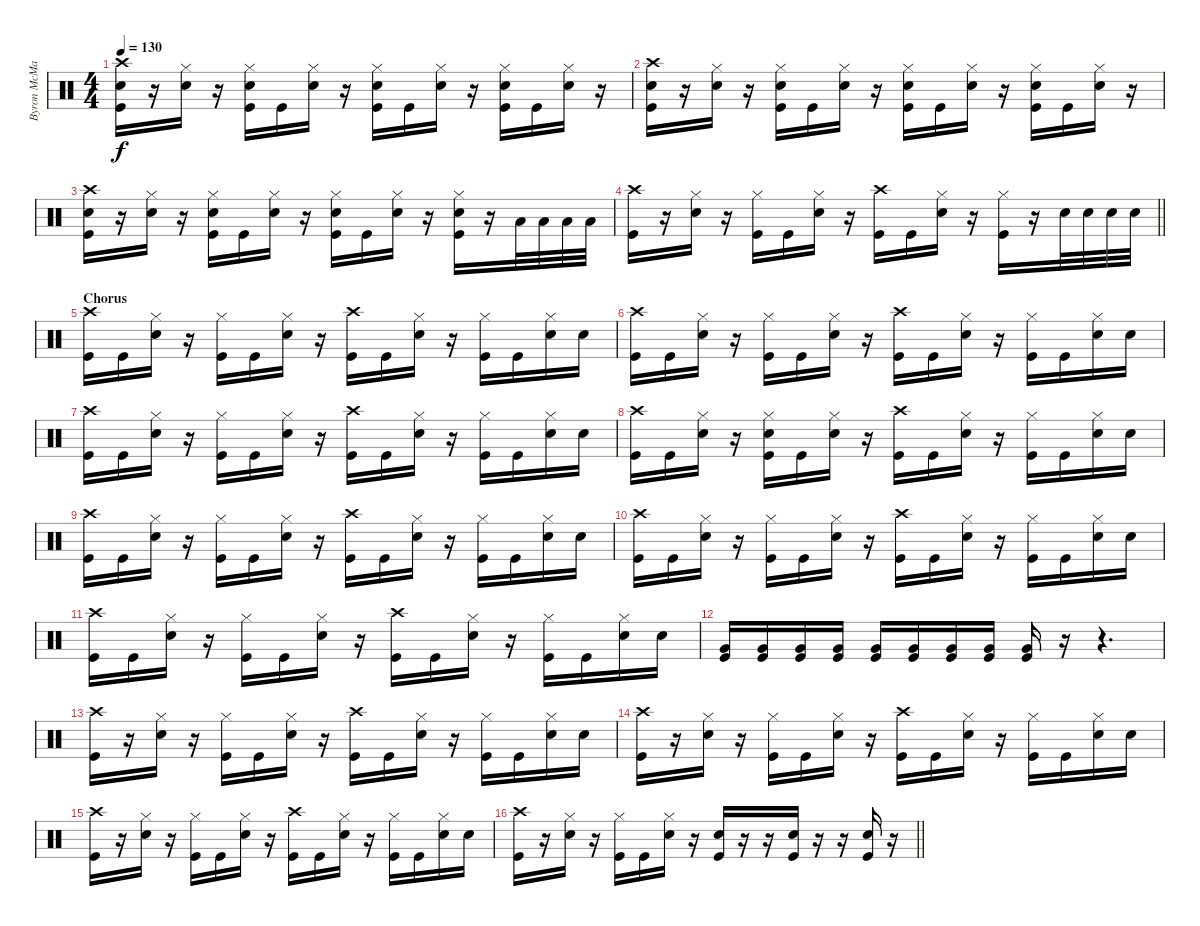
\track ("Byron McMackin" "Byron McMa") {instrument percussion}
\staff {score}
\articulation defaults
\ts (4 4)
\tempo 130
\clef neutral
\ks c
("Crash high (hit)" "Electric Snare (hit)" "Kick (hit)").16{dy f} r.16 ("Hi-Hat (closed)" "Electric Snare (hit)").16 r.16 ("Hi-Hat (closed)" "Electric Snare (hit)" "Kick (hit)").16 "Kick (hit)".16 ("Hi-Hat (closed)" "Electric Snare (hit)").16 r.16 ("Hi-Hat (closed)" "Electric Snare (hit)" "Kick (hit)").16 "Kick (hit)".16 ("Hi-Hat (closed)" "Electric Snare (hit)").16 r.16 ("Hi-Hat (closed)" "Electric Snare (hit)" "Kick (hit)").16 "Kick (hit)".16 ("Hi-Hat (closed)" "Electric Snare (hit)").16 r.16 |
("Crash high (hit)" "Electric Snare (hit)" "Kick (hit)").16 r.16 ("Hi-Hat (closed)" "Electric Snare (hit)").16 r.16 ("Hi-Hat (closed)" "Electric Snare (hit)" "Kick (hit)").16 "Kick (hit)".16 ("Hi-Hat (closed)" "Electric Snare (hit)").16 r.16 ("Hi-Hat (closed)" "Electric Snare (hit)" "Kick (hit)").16 "Kick (hit)".16 ("Hi-Hat (closed)" "Electric Snare (hit)").16 r.16 ("Hi-Hat (closed)" "Electric Snare (hit)" "Kick (hit)").16 "Kick (hit)".16 ("Hi-Hat (closed)" "Electric Snare (hit)").16 r.16 |
("Crash high (hit)" "Electric Snare (hit)" "Kick (hit)").16 r.16 ("Hi-Hat (closed)" "Electric Snare (hit)").16 r.16 ("Hi-Hat (closed)" "Electric Snare (hit)" "Kick (hit)").16 "Kick (hit)".16 ("Hi-Hat (closed)" "Electric Snare (hit)").16 r.16 ("Hi-Hat (closed)" "Electric Snare (hit)" "Kick (hit)").16 "Kick (hit)".16 ("Hi-Hat (closed)" "Electric Snare (hit)").16 r.16 ("Hi-Hat (closed)" "Electric Snare (hit)" "Kick (hit)").16 r.16 "Low Tom (hit)".32 "Low Tom (hit)".32 "Low Tom (hit)".32 "Low Tom (hit)".32 |
\barLineRight lightlight
("Crash high (hit)" "Kick (hit)").16 r.16 ("Hi-Hat (closed)" "Electric Snare (hit)").16 r.16 ("Hi-Hat (closed)" "Kick (hit)").16 "Kick (hit)".16 ("Hi-Hat (closed)" "Electric Snare (hit)").16 r.16 ("Crash high (hit)" "Kick (hit)").16 "Kick (hit)".16 ("Hi-Hat (closed)" "Electric Snare (hit)").16 r.16 ("Hi-Hat (closed)" "Kick (hit)").16 r.16 "Electric Snare (hit)".32 "Electric Snare (hit)".32 "Electric Snare (hit)".32 "Electric Snare (hit)".32 |
\section ("" "Chorus")
("Crash high (hit)" "Kick (hit)").16 "Kick (hit)".16 ("Hi-Hat (closed)" "Electric Snare (hit)").16 r.16 ("Hi-Hat (closed)" "Kick (hit)").16 "Kick (hit)".16 ("Hi-Hat (closed)" "Electric Snare (hit)").16 r.16 ("Crash high (hit)" "Kick (hit)").16 "Kick (hit)".16 ("Hi-Hat (closed)" "Electric Snare (hit)").16 r.16 ("Hi-Hat (closed)" "Kick (hit)").16 "Kick (hit)".16 ("Hi-Hat (closed)" "Electric Snare (hit)").16 "Electric Snare (hit)".16 |
("Crash high (hit)" "Kick (hit)").16 "Kick (hit)".16 ("Hi-Hat (closed)" "Electric Snare (hit)").16 r.16 ("Hi-Hat (closed)" "Kick (hit)").16 "Kick (hit)".16 ("Hi-Hat (closed)" "Electric Snare (hit)").16 r.16 ("Crash high (hit)" "Kick (hit)").16 "Kick (hit)".16 ("Hi-Hat (closed)" "Electric Snare (hit)").16 r.16 ("Hi-Hat (closed)" "Kick (hit)").16 "Kick (hit)".16 ("Hi-Hat (closed)" "Electric Snare (hit)").16 "Electric Snare (hit)".16 |
("Crash high (hit)" "Kick (hit)").16 "Kick (hit)".16 ("Hi-Hat (closed)" "Electric Snare (hit)").16 r.16 ("Hi-Hat (closed)" "Kick (hit)").16 "Kick (hit)".16 ("Hi-Hat (closed)" "Electric Snare (hit)").16 r.16 ("Crash high (hit)" "Kick (hit)").16 "Kick (hit)".16 ("Hi-Hat (closed)" "Electric Snare (hit)").16 r.16 ("Hi-Hat (closed)" "Kick (hit)").16 "Kick (hit)".16 ("Hi-Hat (closed)" "Electric Snare (hit)").16 "Electric Snare (hit)".16 |
("Crash high (hit)" "Kick (hit)").16 "Kick (hit)".16 ("Hi-Hat (closed)" "Electric Snare (hit)").16 r.16 ("Hi-Hat (closed)" "Electric Snare (hit)" "Kick (hit)").16 "Kick (hit)".16 ("Hi-Hat (closed)" "Electric Snare (hit)").16 r.16 ("Crash high (hit)" "Kick (hit)").16 "Kick (hit)".16 ("Hi-Hat (closed)" "Electric Snare (hit)").16 r.16 ("Hi-Hat (closed)" "Kick (hit)").16 "Kick (hit)".16 ("Hi-Hat (closed)" "Electric Snare (hit)").16 "Electric Snare (hit)".16 |
("Crash high (hit)" "Kick (hit)").16 "Kick (hit)".16 ("Hi-Hat (closed)" "Electric Snare (hit)").16 r.16 ("Hi-Hat (closed)" "Kick (hit)").16 "Kick (hit)".16 ("Hi-Hat (closed)" "Electric Snare (hit)").16 r.16 ("Crash high (hit)" "Kick (hit)").16 "Kick (hit)".16 ("Hi-Hat (closed)" "Electric Snare (hit)").16 r.16 ("Hi-Hat (closed)" "Kick (hit)").16 "Kick (hit)".16 ("Hi-Hat (closed)" "Electric Snare (hit)").16 "Electric Snare (hit)".16 |
("Crash high (hit)" "Kick (hit)").16 "Kick (hit)".16 ("Hi-Hat (closed)" "Electric Snare (hit)").16 r.16 ("Hi-Hat (closed)" "Kick (hit)").16 "Kick (hit)".16 ("Hi-Hat (closed)" "Electric Snare (hit)").16 r.16 ("Crash high (hit)" "Kick (hit)").16 "Kick (hit)".16 ("Hi-Hat (closed)" "Electric Snare (hit)").16 r.16 ("Hi-Hat (closed)" "Kick (hit)").16 "Kick (hit)".16 ("Hi-Hat (closed)" "Electric Snare (hit)").16 "Electric Snare (hit)".16 |
("Crash high (hit)" "Kick (hit)").16 "Kick (hit)".16 ("Hi-Hat (closed)" "Electric Snare (hit)").16 r.16 ("Hi-Hat (closed)" "Kick (hit)").16 "Kick (hit)".16 ("Hi-Hat (closed)" "Electric Snare (hit)").16 r.16 ("Crash high (hit)" "Kick (hit)").16 "Kick (hit)".16 ("Hi-Hat (closed)" "Electric Snare (hit)").16 r.16 ("Hi-Hat (closed)" "Kick (hit)").16 "Kick (hit)".16 ("Hi-Hat (closed)" "Electric Snare (hit)").16 "Electric Snare (hit)".16 |
("Very Low Tom (hit)" "Kick (hit)").16 ("Very Low Tom (hit)" "Kick (hit)").16 ("Very Low Tom (hit)" "Kick (hit)").16 ("Very Low Tom (hit)" "Kick (hit)").16 ("Very Low Tom (hit)" "Kick (hit)").16 ("Very Low Tom (hit)" "Kick (hit)").16 ("Very Low Tom (hit)" "Kick (hit)").16 ("Very Low Tom (hit)" "Kick (hit)").16 ("Very Low Tom (hit)" "Kick (hit)").16 r.16 r.4{d} |
("Crash high (hit)" "Kick (hit)").16 r.16 ("Hi-Hat (closed)" "Electric Snare (hit)").16 r.16 ("Hi-Hat (closed)" "Kick (hit)").16 "Kick (hit)".16 ("Hi-Hat (closed)" "Electric Snare (hit)").16 r.16 ("Crash high (hit)" "Kick (hit)").16 "Kick (hit)".16 ("Hi-Hat (closed)" "Electric Snare (hit)").16 r.16 ("Hi-Hat (closed)" "Kick (hit)").16 "Kick (hit)".16 ("Hi-Hat (closed)" "Electric Snare (hit)").16 "Electric Snare (hit)".16 |
("Crash high (hit)" "Kick (hit)").16 r.16 ("Hi-Hat (closed)" "Electric Snare (hit)").16 r.16 ("Hi-Hat (closed)" "Kick (hit)").16 "Kick (hit)".16 ("Hi-Hat (closed)" "Electric Snare (hit)").16 r.16 ("Crash high (hit)" "Kick (hit)").16 "Kick (hit)".16 ("Hi-Hat (closed)" "Electric Snare (hit)").16 r.16 ("Hi-Hat (closed)" "Kick (hit)").16 "Kick (hit)".16 ("Hi-Hat (closed)" "Electric Snare (hit)").16 "Electric Snare (hit)".16 |
("Crash high (hit)" "Kick (hit)").16 r.16 ("Hi-Hat (closed)" "Electric Snare (hit)").16 r.16 ("Hi-Hat (closed)" "Kick (hit)").16 "Kick (hit)".16 ("Hi-Hat (closed)" "Electric Snare (hit)").16 r.16 ("Crash high (hit)" "Kick (hit)").16 "Kick (hit)".16 ("Hi-Hat (closed)" "Electric Snare (hit)").16 r.16 ("Hi-Hat (closed)" "Kick (hit)").16 "Kick (hit)".16 ("Hi-Hat (closed)" "Electric Snare (hit)").16 "Electric Snare (hit)".16 |
\barLineRight lightlight
("Crash high (hit)" "Kick (hit)").16 r.16 ("Hi-Hat (closed)" "Electric Snare (hit)").16 r.16 ("Hi-Hat (closed)" "Kick (hit)").16 "Kick (hit)".16 ("Hi-Hat (closed)" "Electric Snare (hit)").16 r.16 ("Electric Snare (hit)" "Kick (hit)").16 r.16 r.16 ("Electric Snare (hit)" "Kick (hit)").16 r.16 r.16 ("Electric Snare (hit)" "Kick (hit)").16 r.16
